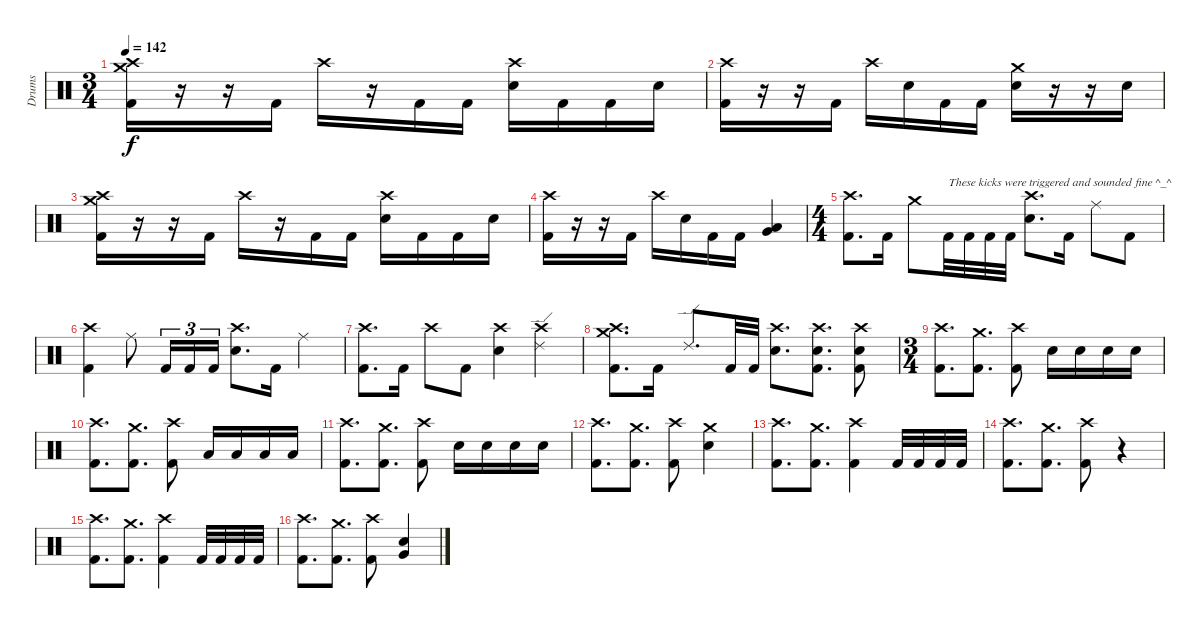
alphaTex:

\track ("Drums" "Drums") {instrument percussion}
\staff {score}
\articulation defaults
\ts (3 4)
\tempo 142
\clef neutral
\ks c
("Crash high (hit)" "Crash medium (hit)" "Kick (hit) 2").16{dy f} r.16 r.16 "Kick (hit) 2".16 "Crash high (hit)".16 r.16 "Kick (hit) 2".16 "Kick (hit) 2".16 ("Crash high (hit)" "Snare (hit) 2").16 "Kick (hit) 2".16 "Kick (hit) 2".16 "Snare (hit) 2".16 |
("Crash high (hit)" "Kick (hit) 2").16 r.16 r.16 "Kick (hit) 2".16 "Crash high (hit)".16 "Snare (hit) 2".16 "Kick (hit) 2".16 "Kick (hit) 2".16 ("Crash medium (hit)" "Snare (hit) 2").16 r.16 r.16 "Snare (hit) 2".16 |
("Crash high (hit)" "Crash medium (hit)" "Kick (hit) 2").16 r.16 r.16 "Kick (hit) 2".16 "Crash high (hit)".16 r.16 "Kick (hit) 2".16 "Kick (hit) 2".16 ("Crash high (hit)" "Snare (hit) 2").16 "Kick (hit) 2".16 "Kick (hit) 2".16 "Snare (hit) 2".16 |
("Crash high (hit)" "Kick (hit) 2").16 r.16 r.16 "Kick (hit) 2".16 "Crash high (hit)".16 "Snare (hit) 2".16 "Kick (hit) 2".16 "Kick (hit) 2".16 ("Very Low Tom (hit)" "Low Tom (hit)").4 |
\ts (4 4)
("Crash high (hit)" "Kick (hit) 2").8{d} "Kick (hit) 2".16 "Crash medium (hit)".8 "Kick (hit) 2".32{txt "These kicks were triggered and sounded fine ^_^"} "Kick (hit) 2".32 "Kick (hit) 2".32 "Kick (hit) 2".32 ("Crash high (hit)" "Snare (hit) 2").8{d} "Kick (hit) 2".16 "Ride (middle)".8 "Kick (hit) 2".8 |
("Crash high (hit)" "Kick (hit) 2").4 "Ride (middle)".8 "Kick (hit) 2".16{tu (3 2)} "Kick (hit) 2".16{tu (3 2)} "Kick (hit) 2".16{tu (3 2)} ("Crash high (hit)" "Snare (hit) 2").8{d} "Kick (hit) 2".16 "Ride (middle)".4 |
("Crash high (hit)" "Kick (hit) 2").8{d} "Kick (hit) 2".16 "Crash high (hit)".8 "Kick (hit) 2".8 ("Crash high (hit)" "Snare (hit) 2").4 ("Crash high (hit)" "Ride (edge) 2").4 |
("Crash high (hit)" "Crash medium (hit)" "Kick (hit) 2").8{d} "Kick (hit) 2".16 "Ride (edge) 2".8{d} "Kick (hit) 2".32 "Kick (hit) 2".32 ("Crash high (hit)" "Snare (hit) 2").8{d} ("Crash high (hit)" "Snare (hit) 2" "Kick (hit) 2").8{d} ("Crash high (hit)" "Snare (hit) 2" "Kick (hit) 2").8 |
\ts (3 4)
("Crash high (hit)" "Kick (hit) 2").8{d} ("Crash medium (hit)" "Kick (hit) 2").8{d} ("Crash high (hit)" "Kick (hit) 2").8 "Snare (hit) 2".16 "Snare (hit) 2".16 "Snare (hit) 2".16 "Snare (hit) 2".16 |
("Crash high (hit)" "Kick (hit) 2").8{d} ("Crash medium (hit)" "Kick (hit) 2").8{d} ("Crash high (hit)" "Kick (hit) 2").8 "Low Floor Tom (hit)".16 "Low Floor Tom (hit)".16 "Low Floor Tom (hit)".16 "Low Floor Tom (hit)".16 |
("Crash high (hit)" "Kick (hit) 2").8{d} ("Crash medium (hit)" "Kick (hit) 2").8{d} ("Crash high (hit)" "Kick (hit) 2").8 "Snare (hit) 2".16 "Snare (hit) 2".16 "Snare (hit) 2".16 "Snare (hit) 2".16 |
("Crash high (hit)" "Kick (hit) 2").8{d} ("Crash medium (hit)" "Kick (hit) 2").8{d} ("Crash high (hit)" "Kick (hit) 2").8 ("Crash medium (hit)" "Snare (hit) 2").4 |
("Crash high (hit)" "Kick (hit) 2").8{d} ("Crash medium (hit)" "Kick (hit) 2").8{d} ("Crash high (hit)" "Kick (hit) 2").4 "Kick (hit) 2".32 "Kick (hit) 2".32 "Kick (hit) 2".32 "Kick (hit) 2".32 |
("Crash high (hit)" "Kick (hit) 2").8{d} ("Crash medium (hit)" "Kick (hit) 2").8{d} ("Crash high (hit)" "Kick (hit) 2").8 r.4 |
("Crash high (hit)" "Kick (hit) 2").8{d} ("Crash medium (hit)" "Kick (hit) 2").8{d} ("Crash high (hit)" "Kick (hit) 2").4 "Kick (hit) 2".32 "Kick (hit) 2".32 "Kick (hit) 2".32 "Kick (hit) 2".32 |
("Crash high (hit)" "Kick (hit) 2").8{d} ("Crash medium (hit)" "Kick (hit) 2").8{d} ("Crash high (hit)" "Kick (hit) 2").8 ("Very Low Tom (hit)" "Snare (hit) 2").4
